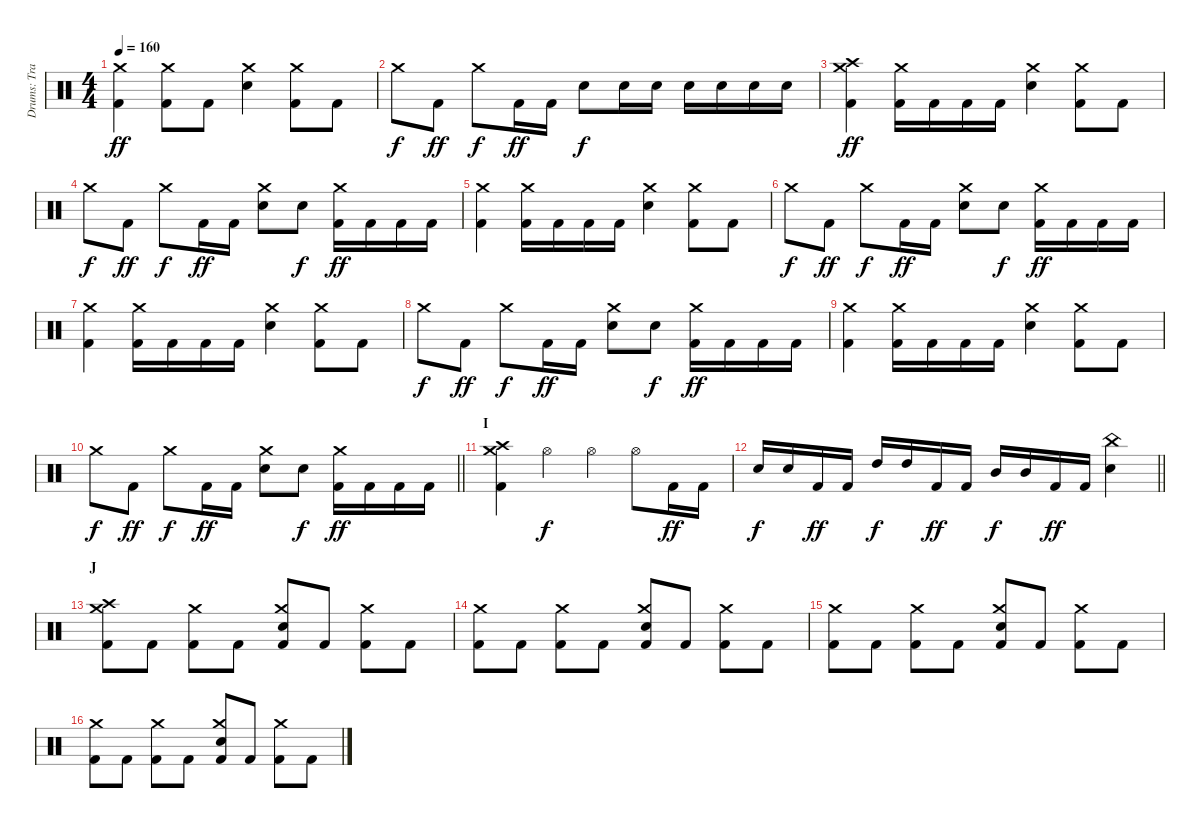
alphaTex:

\track ("Drums: Travis Clarke" "Drums: Tra") {instrument percussion}
\staff {score}
\articulation defaults
\ts (4 4)
\tempo 160
\clef neutral
\ks c
("Kick (hit) 2" "Crash medium (hit)").4{dy ff} ("Kick (hit) 2" "Crash medium (hit)").8 "Kick (hit) 2".8 ("Snare (hit) 2" "Crash medium (hit)").4 ("Kick (hit) 2" "Crash medium (hit)").8 "Kick (hit) 2".8 |
"Crash medium (hit)".8{dy f} "Kick (hit) 2".8{dy ff} "Crash medium (hit)".8{dy f} "Kick (hit) 2".16{dy ff} "Kick (hit) 2".16 "Snare (hit) 2".8{dy f} "Snare (hit) 2".16 "Snare (hit) 2".16 "Snare (hit) 2".16 "Snare (hit) 2".16 "Snare (hit) 2".16 "Snare (hit) 2".16 |
("Kick (hit) 2" "Crash high (hit)" "Crash medium (hit)").4{dy ff} ("Kick (hit) 2" "Crash medium (hit)").16 "Kick (hit) 2".16 "Kick (hit) 2".16 "Kick (hit) 2".16 ("Snare (hit) 2" "Crash medium (hit)").4 ("Kick (hit) 2" "Crash medium (hit)").8 "Kick (hit) 2".8 |
"Crash medium (hit)".8{dy f} "Kick (hit) 2".8{dy ff} "Crash medium (hit)".8{dy f} "Kick (hit) 2".16{dy ff} "Kick (hit) 2".16 ("Snare (hit) 2" "Crash medium (hit)").8 "Snare (hit) 2".8{dy f} ("Kick (hit) 2" "Crash medium (hit)").16{dy ff} "Kick (hit) 2".16 "Kick (hit) 2".16 "Kick (hit) 2".16 |
("Kick (hit) 2" "Crash medium (hit)").4 ("Kick (hit) 2" "Crash medium (hit)").16 "Kick (hit) 2".16 "Kick (hit) 2".16 "Kick (hit) 2".16 ("Snare (hit) 2" "Crash medium (hit)").4 ("Kick (hit) 2" "Crash medium (hit)").8 "Kick (hit) 2".8 |
"Crash medium (hit)".8{dy f} "Kick (hit) 2".8{dy ff} "Crash medium (hit)".8{dy f} "Kick (hit) 2".16{dy ff} "Kick (hit) 2".16 ("Snare (hit) 2" "Crash medium (hit)").8 "Snare (hit) 2".8{dy f} ("Kick (hit) 2" "Crash medium (hit)").16{dy ff} "Kick (hit) 2".16 "Kick (hit) 2".16 "Kick (hit) 2".16 |
("Kick (hit) 2" "Crash medium (hit)").4 ("Kick (hit) 2" "Crash medium (hit)").16 "Kick (hit) 2".16 "Kick (hit) 2".16 "Kick (hit) 2".16 ("Snare (hit) 2" "Crash medium (hit)").4 ("Kick (hit) 2" "Crash medium (hit)").8 "Kick (hit) 2".8 |
"Crash medium (hit)".8{dy f} "Kick (hit) 2".8{dy ff} "Crash medium (hit)".8{dy f} "Kick (hit) 2".16{dy ff} "Kick (hit) 2".16 ("Snare (hit) 2" "Crash medium (hit)").8 "Snare (hit) 2".8{dy f} ("Kick (hit) 2" "Crash medium (hit)").16{dy ff} "Kick (hit) 2".16 "Kick (hit) 2".16 "Kick (hit) 2".16 |
("Kick (hit) 2" "Crash medium (hit)").4 ("Kick (hit) 2" "Crash medium (hit)").16 "Kick (hit) 2".16 "Kick (hit) 2".16 "Kick (hit) 2".16 ("Snare (hit) 2" "Crash medium (hit)").4 ("Kick (hit) 2" "Crash medium (hit)").8 "Kick (hit) 2".8 |
\barLineRight lightlight "Crash medium (hit)".8{dy f} "Kick (hit) 2".8{dy ff} "Crash medium (hit)".8{dy f} "Kick (hit) 2".16{dy ff} "Kick (hit) 2".16
("Snare (hit) 2" "Crash medium (hit)").8 "Snare (hit) 2".8{dy f} ("Kick (hit) 2" "Crash medium (hit)").16{dy ff} "Kick (hit) 2".16 "Kick (hit) 2".16 "Kick (hit) 2".16 |
\section ("" "I")
("Kick (hit) 2" "Crash high (hit)" "Crash medium (hit)").4 "Hi-Hat (open)".4{dy f} "Hi-Hat (open)".4 "Hi-Hat (open)".8 "Kick (hit) 2".16{dy ff} "Kick (hit) 2".16 |
\barLineRight lightlight "Snare (hit) 2".16{dy f} "Snare (hit) 2".16 "Kick (hit) 2".16{dy ff} "Kick (hit) 2".16 "High Tom (hit)".16{dy f} "High Tom (hit)".16 "Kick (hit) 2".16{dy ff} "Kick (hit) 2".16 "Mid Tom (hit)".16{dy f} "Mid Tom (hit)".16 "Kick (hit) 2".16{dy ff} "Kick (hit) 2".16
("Snare (hit) 2" "China (hit)").4 |
\section ("" "J")
("Kick (hit) 2" "Crash high (hit)" "Crash medium (hit)").8 "Kick (hit) 2".8 ("Kick (hit) 2" "Crash medium (hit)").8 "Kick (hit) 2".8 ("Kick (hit) 2" "Snare (hit) 2" "Crash medium (hit)").8 "Kick (hit) 2".8 ("Kick (hit) 2" "Crash medium (hit)").8 "Kick (hit) 2".8 |
("Kick (hit) 2" "Crash medium (hit)").8 "Kick (hit) 2".8 ("Kick (hit) 2" "Crash medium (hit)").8 "Kick (hit) 2".8 ("Kick (hit) 2" "Snare (hit) 2" "Crash medium (hit)").8 "Kick (hit) 2".8 ("Kick (hit) 2" "Crash medium (hit)").8 "Kick (hit) 2".8 |
("Kick (hit) 2" "Crash medium (hit)").8 "Kick (hit) 2".8 ("Kick (hit) 2" "Crash medium (hit)").8 "Kick (hit) 2".8 ("Kick (hit) 2" "Snare (hit) 2" "Crash medium (hit)").8 "Kick (hit) 2".8 ("Kick (hit) 2" "Crash medium (hit)").8 "Kick (hit) 2".8 |
("Kick (hit) 2" "Crash medium (hit)").8 "Kick (hit) 2".8 ("Kick (hit) 2" "Crash medium (hit)").8 "Kick (hit) 2".8 ("Kick (hit) 2" "Snare (hit) 2" "Crash medium (hit)").8 "Kick (hit) 2".8 ("Kick (hit) 2" "Crash medium (hit)").8 "Kick (hit) 2".8
